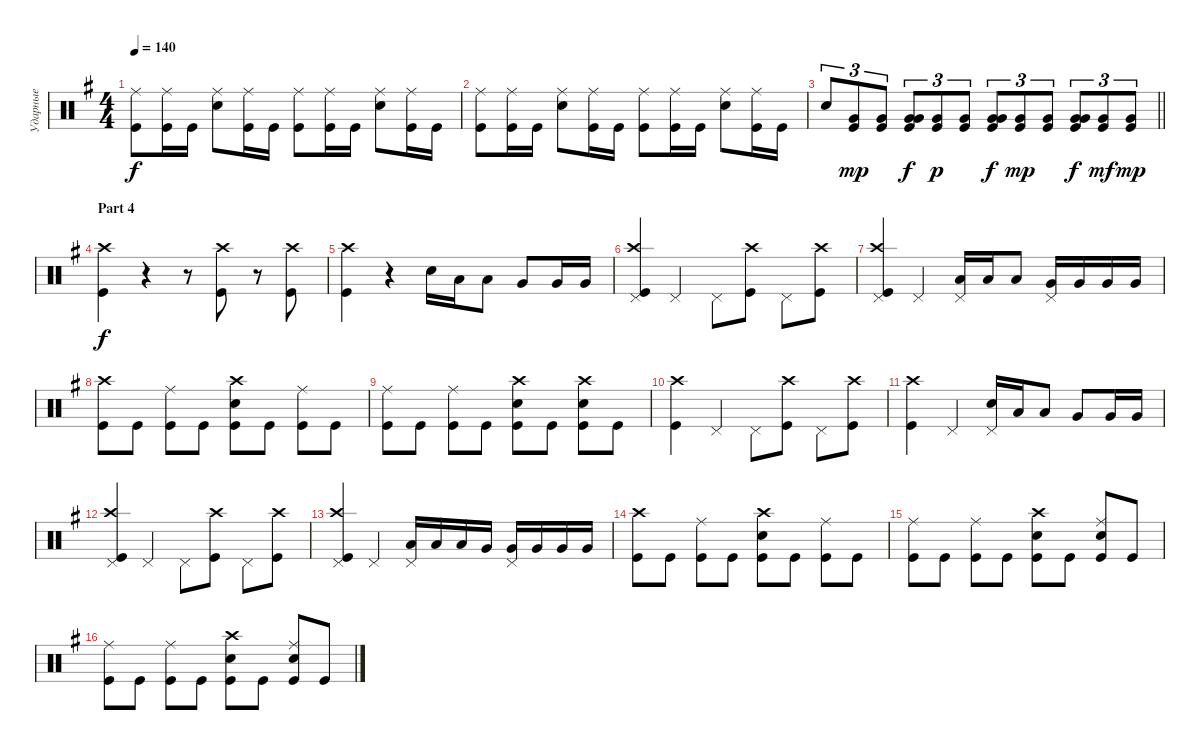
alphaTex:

\track ("Ударные" "Ударные") {instrument percussion}
\staff {score}
\articulation defaults
\ts (4 4)
\tempo 140
\clef neutral
\ks eminor
("Kick (hit)" "Ride (middle)").8{dy f} ("Kick (hit)" "Ride (middle)").16 "Kick (hit)".16 ("Snare (hit) 2" "Ride (middle)").8 ("Kick (hit)" "Ride (middle)").16 "Kick (hit)".16 ("Kick (hit)" "Ride (middle)").8 ("Kick (hit)" "Ride (middle)").16 "Kick (hit)".16 ("Snare (hit) 2" "Ride (middle)").8 ("Kick (hit)" "Ride (middle)").16 "Kick (hit)".16 |
("Kick (hit)" "Ride (middle)").8 ("Kick (hit)" "Ride (middle)").16 "Kick (hit)".16 ("Snare (hit) 2" "Ride (middle)").8 ("Kick (hit)" "Ride (middle)").16 "Kick (hit)".16 ("Kick (hit)" "Ride (middle)").8 ("Kick (hit)" "Ride (middle)").16 "Kick (hit)".16 ("Snare (hit) 2" "Ride (middle)").8 ("Kick (hit)" "Ride (middle)").16 "Kick (hit)".16 |
\barLineRight lightlight "Snare (hit) 2".8{tu (3 2)}
("Kick (hit)" "Very Low Tom (hit)").8{tu (3 2) dy mp} ("Kick (hit)" "Very Low Tom (hit)").8{tu (3 2)} ("Kick (hit)" "Very Low Tom (hit)" "Very Low Tom (hit)").8{tu (3 2) bd 60 dy f} ("Kick (hit)" "Very Low Tom (hit)").8{tu (3 2) dy p} ("Kick (hit)" "Very Low Tom (hit)").8{tu (3 2)} ("Kick (hit)" "Very Low Tom (hit)" "Very Low Tom (hit)").8{tu (3 2) bd 60 dy f} ("Kick (hit)" "Very Low Tom (hit)").8{tu (3 2) dy mp} ("Kick (hit)" "Very Low Tom (hit)").8{tu (3 2)} ("Kick (hit)" "Very Low Tom (hit)" "Very Low Tom (hit)").8{tu (3 2) bd 120 dy f} ("Kick (hit)" "Very Low Tom (hit)").8{tu (3 2) dy mf} ("Kick (hit)" "Very Low Tom (hit)").8{tu (3 2) dy mp} |
\section ("" "Part 4")
("Kick (hit)" "Crash high (hit)").4{dy f} r.4 r.8 ("Kick (hit)" "Crash high (hit)").8 r.8 ("Kick (hit)" "Crash high (hit)").8 |
("Kick (hit)" "Crash high (hit)").4 r.4 "Snare (hit) 2".16 "Low Tom (hit)".16 "Low Tom (hit)".8 "Very Low Tom (hit)".8 "Very Low Tom (hit)".16 "Very Low Tom (hit)".16 |
("Kick (hit)" "Crash high (hit)" "Pedal Hi-Hat (hit)").4 "Pedal Hi-Hat (hit)".4 "Pedal Hi-Hat (hit)".8 ("Kick (hit)" "Crash high (hit)").8 "Pedal Hi-Hat (hit)".8 ("Kick (hit)" "Crash high (hit)").8 |
("Kick (hit)" "Crash high (hit)" "Pedal Hi-Hat (hit)").4 "Pedal Hi-Hat (hit)".4 ("Low Tom (hit)" "Pedal Hi-Hat (hit)").16 "Low Tom (hit)".16 "Low Tom (hit)".8 ("Very Low Tom (hit)" "Pedal Hi-Hat (hit)").16 "Very Low Tom (hit)".16 "Very Low Tom (hit)".16 "Very Low Tom (hit)".16 |
("Kick (hit)" "Crash high (hit)").8 "Kick (hit)".8 ("Kick (hit)" "Ride (middle)").8 "Kick (hit)".8 ("Kick (hit)" "Snare (hit) 2" "Crash high (hit)").8 "Kick (hit)".8 ("Kick (hit)" "Ride (middle)").8 "Kick (hit)".8 |
("Kick (hit)" "Ride (middle)").8 "Kick (hit)".8 ("Kick (hit)" "Ride (middle)").8 "Kick (hit)".8 ("Kick (hit)" "Snare (hit) 2" "Crash high (hit)").8 "Kick (hit)".8 ("Kick (hit)" "Snare (hit) 2" "Crash high (hit)").8 "Kick (hit)".8 |
("Kick (hit)" "Crash high (hit)").4 "Pedal Hi-Hat (hit)".4 "Pedal Hi-Hat (hit)".8 ("Kick (hit)" "Crash high (hit)").8 "Pedal Hi-Hat (hit)".8 ("Kick (hit)" "Crash high (hit)").8 |
("Kick (hit)" "Crash high (hit)").4 "Pedal Hi-Hat (hit)".4 ("Snare (hit) 2" "Pedal Hi-Hat (hit)").16 "Low Tom (hit)".16 "Low Tom (hit)".8 "Very Low Tom (hit)".8 "Very Low Tom (hit)".16 "Very Low Tom (hit)".16 |
("Kick (hit)" "Crash high (hit)" "Pedal Hi-Hat (hit)").4 "Pedal Hi-Hat (hit)".4 "Pedal Hi-Hat (hit)".8 ("Kick (hit)" "Crash high (hit)").8 "Pedal Hi-Hat (hit)".8 ("Kick (hit)" "Crash high (hit)").8 |
("Kick (hit)" "Crash high (hit)" "Pedal Hi-Hat (hit)").4 "Pedal Hi-Hat (hit)".4 ("Low Tom (hit)" "Pedal Hi-Hat (hit)").16 "Low Tom (hit)".16 "Low Tom (hit)".16 "Very Low Tom (hit)".16 ("Very Low Tom (hit)" "Pedal Hi-Hat (hit)").16 "Very Low Tom (hit)".16 "Very Low Tom (hit)".16 "Very Low Tom (hit)".16 |
("Kick (hit)" "Crash high (hit)").8 "Kick (hit)".8 ("Kick (hit)" "Ride (middle)").8 "Kick (hit)".8 ("Kick (hit)" "Snare (hit) 2" "Crash high (hit)").8 "Kick (hit)".8 ("Kick (hit)" "Ride (middle)").8 "Kick (hit)".8 |
("Kick (hit)" "Ride (middle)").8 "Kick (hit)".8 ("Kick (hit)" "Ride (middle)").8 "Kick (hit)".8 ("Kick (hit)" "Snare (hit) 2" "Crash high (hit)").8 "Kick (hit)".8 ("Kick (hit)" "Ride (middle)" "Snare (hit) 2").8 "Kick (hit)".8 |
("Kick (hit)" "Ride (middle)").8 "Kick (hit)".8 ("Kick (hit)" "Ride (middle)").8 "Kick (hit)".8 ("Kick (hit)" "Snare (hit) 2" "Crash high (hit)").8 "Kick (hit)".8 ("Kick (hit)" "Ride (middle)" "Snare (hit) 2").8 "Kick (hit)".8
